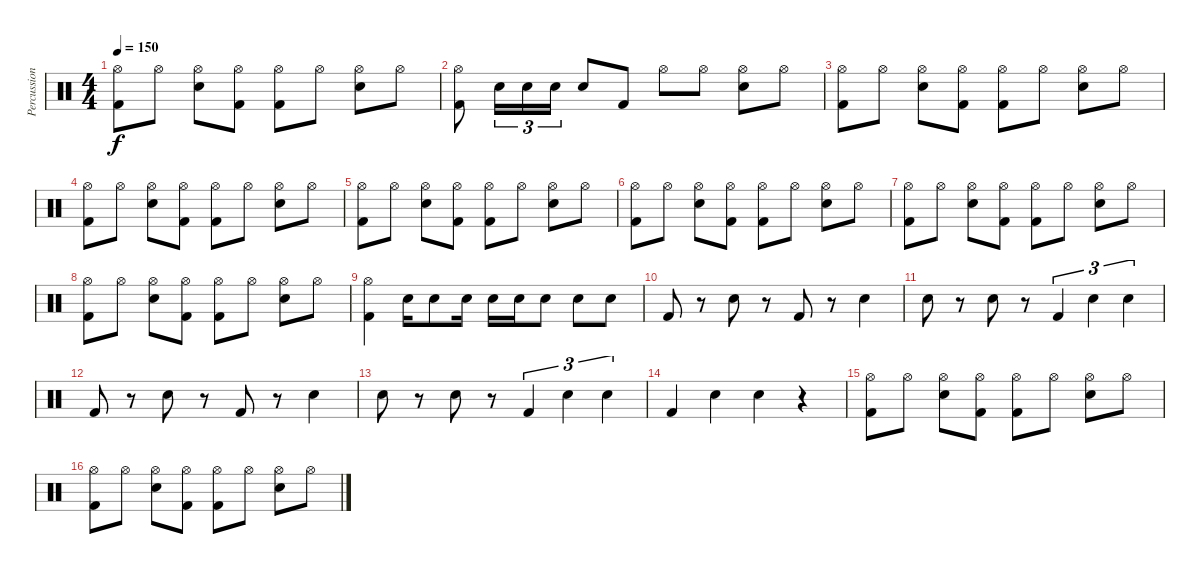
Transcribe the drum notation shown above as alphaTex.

\track ("Percussion" "Percussion") {instrument percussion}
\staff {score}
\articulation defaults
\ts (4 4)
\tempo 150
\clef neutral
\ks c
("Hi-Hat (open)" "Kick (hit) 2").8{dy f} "Hi-Hat (open)".8 ("Hi-Hat (open)" "Snare (hit) 2").8 ("Hi-Hat (open)" "Kick (hit) 2").8 ("Hi-Hat (open)" "Kick (hit) 2").8 "Hi-Hat (open)".8 ("Hi-Hat (open)" "Snare (hit) 2").8 "Hi-Hat (open)".8 |
("Hi-Hat (open)" "Kick (hit) 2").8 "Snare (hit) 2".16{tu (3 2)} "Snare (hit) 2".16{tu (3 2)} "Snare (hit) 2".16{tu (3 2)} "Snare (hit) 2".8 "Kick (hit) 2".8 "Hi-Hat (open)".8 "Hi-Hat (open)".8 ("Hi-Hat (open)" "Snare (hit) 2").8 "Hi-Hat (open)".8 |
("Hi-Hat (open)" "Kick (hit) 2").8 "Hi-Hat (open)".8 ("Hi-Hat (open)" "Snare (hit) 2").8 ("Hi-Hat (open)" "Kick (hit) 2").8 ("Hi-Hat (open)" "Kick (hit) 2").8 "Hi-Hat (open)".8 ("Hi-Hat (open)" "Snare (hit) 2").8 "Hi-Hat (open)".8 |
("Hi-Hat (open)" "Kick (hit) 2").8 "Hi-Hat (open)".8 ("Hi-Hat (open)" "Snare (hit) 2").8 ("Hi-Hat (open)" "Kick (hit) 2").8 ("Hi-Hat (open)" "Kick (hit) 2").8 "Hi-Hat (open)".8 ("Hi-Hat (open)" "Snare (hit) 2").8 "Hi-Hat (open)".8 |
("Hi-Hat (open)" "Kick (hit) 2").8 "Hi-Hat (open)".8 ("Hi-Hat (open)" "Snare (hit) 2").8 ("Hi-Hat (open)" "Kick (hit) 2").8 ("Hi-Hat (open)" "Kick (hit) 2").8 "Hi-Hat (open)".8 ("Hi-Hat (open)" "Snare (hit) 2").8 "Hi-Hat (open)".8 |
("Hi-Hat (open)" "Kick (hit) 2").8 "Hi-Hat (open)".8 ("Hi-Hat (open)" "Snare (hit) 2").8 ("Hi-Hat (open)" "Kick (hit) 2").8 ("Hi-Hat (open)" "Kick (hit) 2").8 "Hi-Hat (open)".8 ("Hi-Hat (open)" "Snare (hit) 2").8 "Hi-Hat (open)".8 |
("Hi-Hat (open)" "Kick (hit) 2").8 "Hi-Hat (open)".8 ("Hi-Hat (open)" "Snare (hit) 2").8 ("Hi-Hat (open)" "Kick (hit) 2").8 ("Hi-Hat (open)" "Kick (hit) 2").8 "Hi-Hat (open)".8 ("Hi-Hat (open)" "Snare (hit) 2").8 "Hi-Hat (open)".8 |
("Hi-Hat (open)" "Kick (hit) 2").8 "Hi-Hat (open)".8 ("Hi-Hat (open)" "Snare (hit) 2").8 ("Hi-Hat (open)" "Kick (hit) 2").8 ("Hi-Hat (open)" "Kick (hit) 2").8 "Hi-Hat (open)".8 ("Hi-Hat (open)" "Snare (hit) 2").8 "Hi-Hat (open)".8 |
("Hi-Hat (open)" "Kick (hit) 2").4 "Snare (hit) 2".16 "Snare (hit) 2".8 "Snare (hit) 2".16 "Snare (hit) 2".16 "Snare (hit) 2".16 "Snare (hit) 2".8 "Snare (hit) 2".8 "Snare (hit) 2".8 |
"Kick (hit) 2".8 r.8 "Snare (hit) 2".8 r.8 "Kick (hit) 2".8 r.8 "Snare (hit) 2".4 |
"Snare (hit) 2".8 r.8 "Snare (hit) 2".8 r.8 "Kick (hit) 2".4{tu (3 2)} "Snare (hit) 2".4{tu (3 2)} "Snare (hit) 2".4{tu (3 2)} |
"Kick (hit) 2".8 r.8 "Snare (hit) 2".8 r.8 "Kick (hit) 2".8 r.8 "Snare (hit) 2".4 |
"Snare (hit) 2".8 r.8 "Snare (hit) 2".8 r.8 "Kick (hit) 2".4{tu (3 2)} "Snare (hit) 2".4{tu (3 2)} "Snare (hit) 2".4{tu (3 2)} |
"Kick (hit) 2".4 "Snare (hit) 2".4 "Snare (hit) 2".4 r.4 |
("Hi-Hat (open)" "Kick (hit) 2").8 "Hi-Hat (open)".8 ("Hi-Hat (open)" "Snare (hit) 2").8 ("Hi-Hat (open)" "Kick (hit) 2").8 ("Hi-Hat (open)" "Kick (hit) 2").8 "Hi-Hat (open)".8 ("Hi-Hat (open)" "Snare (hit) 2").8 "Hi-Hat (open)".8 |
("Hi-Hat (open)" "Kick (hit) 2").8 "Hi-Hat (open)".8 ("Hi-Hat (open)" "Snare (hit) 2").8 ("Hi-Hat (open)" "Kick (hit) 2").8 ("Hi-Hat (open)" "Kick (hit) 2").8 "Hi-Hat (open)".8 ("Hi-Hat (open)" "Snare (hit) 2").8 "Hi-Hat (open)".8
